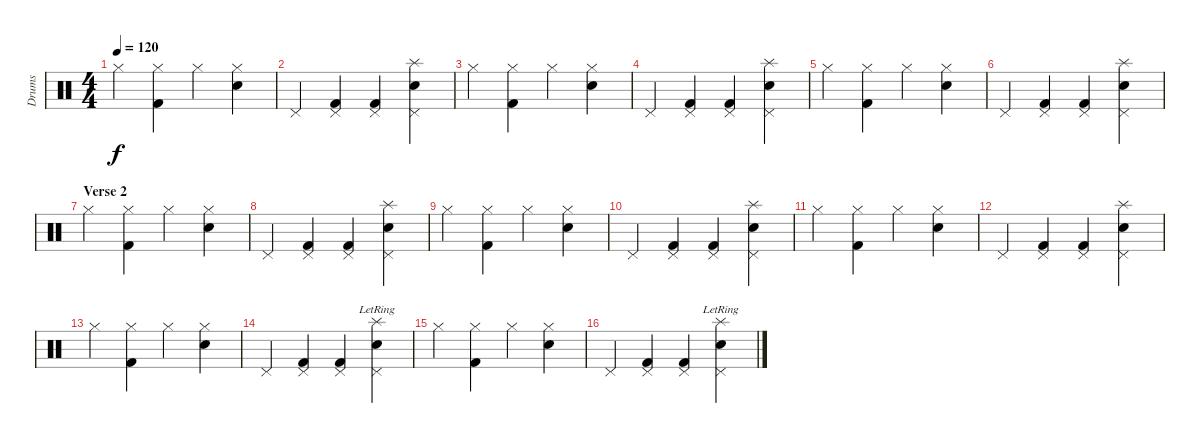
\track ("Drums" "Drums") {instrument percussion}
\staff {score}
\articulation defaults
\ts (4 4)
\tempo 120
\clef neutral
\ks c "Hi-Hat (closed)".4{dy f}
("Hi-Hat (closed)" "Kick (hit) 2").4 "Hi-Hat (closed)".4 ("Hi-Hat (closed)" "Snare (hit) 2").4 |
"Pedal Hi-Hat (hit)".4 ("Pedal Hi-Hat (hit)" "Kick (hit) 2").4 ("Pedal Hi-Hat (hit)" "Kick (hit) 2").4 ("Pedal Hi-Hat (hit)" "Splash (hit)" "Snare (hit) 2").4 |
"Hi-Hat (closed)".4 ("Hi-Hat (closed)" "Kick (hit) 2").4 "Hi-Hat (closed)".4 ("Hi-Hat (closed)" "Snare (hit) 2").4 |
"Pedal Hi-Hat (hit)".4 ("Pedal Hi-Hat (hit)" "Kick (hit) 2").4 ("Pedal Hi-Hat (hit)" "Kick (hit) 2").4 ("Pedal Hi-Hat (hit)" "Splash (hit)" "Snare (hit) 2").4 |
"Hi-Hat (closed)".4 ("Hi-Hat (closed)" "Kick (hit) 2").4 "Hi-Hat (closed)".4 ("Hi-Hat (closed)" "Snare (hit) 2").4 |
"Pedal Hi-Hat (hit)".4 ("Pedal Hi-Hat (hit)" "Kick (hit) 2").4 ("Pedal Hi-Hat (hit)" "Kick (hit) 2").4 ("Pedal Hi-Hat (hit)" "Splash (hit)" "Snare (hit) 2").4 |
\section ("" "Verse 2")
"Hi-Hat (closed)".4 ("Hi-Hat (closed)" "Kick (hit) 2").4 "Hi-Hat (closed)".4 ("Hi-Hat (closed)" "Snare (hit) 2").4 |
"Pedal Hi-Hat (hit)".4 ("Pedal Hi-Hat (hit)" "Kick (hit) 2").4 ("Pedal Hi-Hat (hit)" "Kick (hit) 2").4 ("Pedal Hi-Hat (hit)" "Splash (hit)" "Snare (hit) 2").4 |
"Hi-Hat (closed)".4 ("Hi-Hat (closed)" "Kick (hit) 2").4 "Hi-Hat (closed)".4 ("Hi-Hat (closed)" "Snare (hit) 2").4 |
"Pedal Hi-Hat (hit)".4 ("Pedal Hi-Hat (hit)" "Kick (hit) 2").4 ("Pedal Hi-Hat (hit)" "Kick (hit) 2").4 ("Pedal Hi-Hat (hit)" "Splash (hit)" "Snare (hit) 2").4 |
"Hi-Hat (closed)".4 ("Hi-Hat (closed)" "Kick (hit) 2").4 "Hi-Hat (closed)".4 ("Hi-Hat (closed)" "Snare (hit) 2").4 |
"Pedal Hi-Hat (hit)".4 ("Pedal Hi-Hat (hit)" "Kick (hit) 2").4 ("Pedal Hi-Hat (hit)" "Kick (hit) 2").4 ("Pedal Hi-Hat (hit)" "Splash (hit)" "Snare (hit) 2").4 |
"Hi-Hat (closed)".4 ("Hi-Hat (closed)" "Kick (hit) 2").4 "Hi-Hat (closed)".4 ("Hi-Hat (closed)" "Snare (hit) 2").4 |
"Pedal Hi-Hat (hit)".4 ("Pedal Hi-Hat (hit)" "Kick (hit) 2").4 ("Pedal Hi-Hat (hit)" "Kick (hit) 2").4 ("Pedal Hi-Hat (hit)" "Splash (hit)"{lr} "Snare (hit) 2").4 |
"Hi-Hat (closed)".4 ("Hi-Hat (closed)" "Kick (hit) 2").4 "Hi-Hat (closed)".4 ("Hi-Hat (closed)" "Snare (hit) 2").4 |
"Pedal Hi-Hat (hit)".4 ("Pedal Hi-Hat (hit)" "Kick (hit) 2").4 ("Pedal Hi-Hat (hit)" "Kick (hit) 2").4 ("Pedal Hi-Hat (hit)" "Splash (hit)"{lr} "Snare (hit) 2").4
